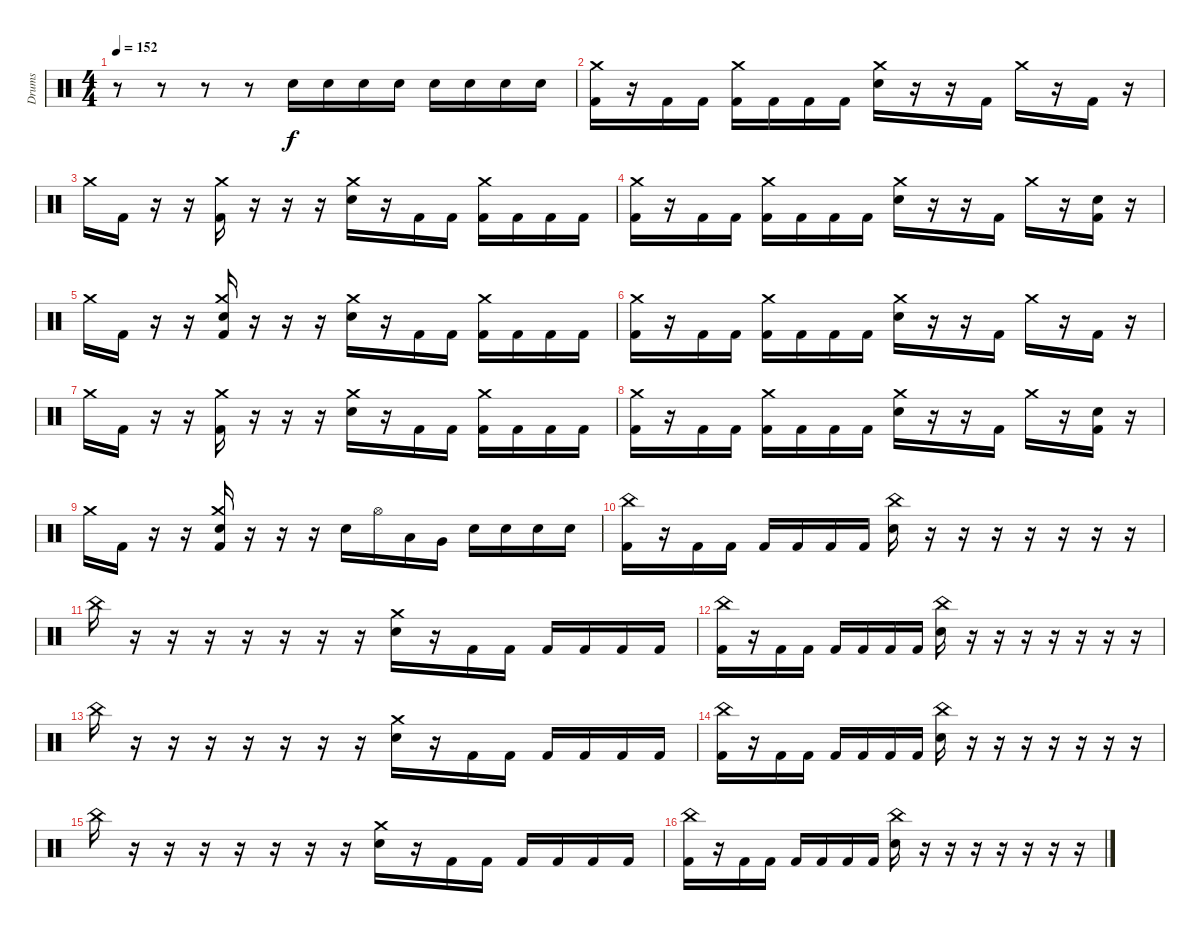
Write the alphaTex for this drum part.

\track ("Drums" "Drums") {instrument percussion}
\staff {score}
\articulation defaults
\ts (4 4)
\tempo 152
\clef neutral
\ks c
r.8{dy f} r.8 r.8 r.8 "Electric Snare (hit)".16 "Electric Snare (hit)".16 "Electric Snare (hit)".16 "Electric Snare (hit)".16 "Electric Snare (hit)".16 "Electric Snare (hit)".16 "Electric Snare (hit)".16 "Electric Snare (hit)".16 |
("Crash medium (hit)" "Kick (hit) 2").16 r.16 "Kick (hit) 2".16 "Kick (hit) 2".16 ("Crash medium (hit)" "Kick (hit) 2").16 "Kick (hit) 2".16 "Kick (hit) 2".16 "Kick (hit) 2".16 ("Crash medium (hit)" "Electric Snare (hit)").16 r.16 r.16 "Kick (hit) 2".16 "Crash medium (hit)".16 r.16 "Kick (hit) 2".16 r.16 |
"Crash medium (hit)".16 "Kick (hit) 2".16 r.16 r.16 ("Crash medium (hit)" "Kick (hit) 2").16 r.16 r.16 r.16 ("Crash medium (hit)" "Electric Snare (hit)").16 r.16 "Kick (hit) 2".16 "Kick (hit) 2".16 ("Crash medium (hit)" "Kick (hit) 2").16 "Kick (hit) 2".16 "Kick (hit) 2".16 "Kick (hit) 2".16 |
("Crash medium (hit)" "Kick (hit) 2").16 r.16 "Kick (hit) 2".16 "Kick (hit) 2".16 ("Crash medium (hit)" "Kick (hit) 2").16 "Kick (hit) 2".16 "Kick (hit) 2".16 "Kick (hit) 2".16 ("Crash medium (hit)" "Electric Snare (hit)").16 r.16 r.16 "Kick (hit) 2".16 "Crash medium (hit)".16 r.16 ("Electric Snare (hit)" "Kick (hit) 2").16 r.16 |
"Crash medium (hit)".16 "Kick (hit) 2".16 r.16 r.16 ("Crash medium (hit)" "Electric Snare (hit)" "Kick (hit) 2").16 r.16 r.16 r.16 ("Crash medium (hit)" "Electric Snare (hit)").16 r.16 "Kick (hit) 2".16 "Kick (hit) 2".16 ("Crash medium (hit)" "Kick (hit) 2").16 "Kick (hit) 2".16 "Kick (hit) 2".16 "Kick (hit) 2".16 |
("Crash medium (hit)" "Kick (hit) 2").16 r.16 "Kick (hit) 2".16 "Kick (hit) 2".16 ("Crash medium (hit)" "Kick (hit) 2").16 "Kick (hit) 2".16 "Kick (hit) 2".16 "Kick (hit) 2".16 ("Crash medium (hit)" "Electric Snare (hit)").16 r.16 r.16 "Kick (hit) 2".16 "Crash medium (hit)".16 r.16 "Kick (hit) 2".16 r.16 |
"Crash medium (hit)".16 "Kick (hit) 2".16 r.16 r.16 ("Crash medium (hit)" "Kick (hit) 2").16 r.16 r.16 r.16 ("Crash medium (hit)" "Electric Snare (hit)").16 r.16 "Kick (hit) 2".16 "Kick (hit) 2".16 ("Crash medium (hit)" "Kick (hit) 2").16 "Kick (hit) 2".16 "Kick (hit) 2".16 "Kick (hit) 2".16 |
("Crash medium (hit)" "Kick (hit) 2").16 r.16 "Kick (hit) 2".16 "Kick (hit) 2".16 ("Crash medium (hit)" "Kick (hit) 2").16 "Kick (hit) 2".16 "Kick (hit) 2".16 "Kick (hit) 2".16 ("Crash medium (hit)" "Electric Snare (hit)").16 r.16 r.16 "Kick (hit) 2".16 "Crash medium (hit)".16 r.16 ("Electric Snare (hit)" "Kick (hit) 2").16 r.16 |
"Crash medium (hit)".16 "Kick (hit) 2".16 r.16 r.16 ("Crash medium (hit)" "Electric Snare (hit)" "Kick (hit) 2").16 r.16 r.16 r.16 "Electric Snare (hit)".16 "Hi-Hat (open)".16 "Low Tom (hit)".16 "Very Low Tom (hit)".16 "Electric Snare (hit)".16 "Electric Snare (hit)".16 "Electric Snare (hit)".16 "Electric Snare (hit)".16 |
("China (hit)" "Kick (hit) 2").16 r.16 "Kick (hit) 2".16 "Kick (hit) 2".16 "Kick (hit) 2".16 "Kick (hit) 2".16 "Kick (hit) 2".16 "Kick (hit) 2".16 ("China (hit)" "Electric Snare (hit)").16 r.16 r.16 r.16 r.16 r.16 r.16 r.16 |
"China (hit)".16 r.16 r.16 r.16 r.16 r.16 r.16 r.16 ("Crash medium (hit)" "Electric Snare (hit)").16 r.16 "Kick (hit) 2".16 "Kick (hit) 2".16 "Kick (hit) 2".16 "Kick (hit) 2".16 "Kick (hit) 2".16 "Kick (hit) 2".16 |
("China (hit)" "Kick (hit) 2").16 r.16 "Kick (hit) 2".16 "Kick (hit) 2".16 "Kick (hit) 2".16 "Kick (hit) 2".16 "Kick (hit) 2".16 "Kick (hit) 2".16 ("China (hit)" "Electric Snare (hit)").16 r.16 r.16 r.16 r.16 r.16 r.16 r.16 |
"China (hit)".16 r.16 r.16 r.16 r.16 r.16 r.16 r.16 ("Crash medium (hit)" "Electric Snare (hit)").16 r.16 "Kick (hit) 2".16 "Kick (hit) 2".16 "Kick (hit) 2".16 "Kick (hit) 2".16 "Kick (hit) 2".16 "Kick (hit) 2".16 |
("China (hit)" "Kick (hit) 2").16 r.16 "Kick (hit) 2".16 "Kick (hit) 2".16 "Kick (hit) 2".16 "Kick (hit) 2".16 "Kick (hit) 2".16 "Kick (hit) 2".16 ("China (hit)" "Electric Snare (hit)").16 r.16 r.16 r.16 r.16 r.16 r.16 r.16 |
"China (hit)".16 r.16 r.16 r.16 r.16 r.16 r.16 r.16 ("Crash medium (hit)" "Electric Snare (hit)").16 r.16 "Kick (hit) 2".16 "Kick (hit) 2".16 "Kick (hit) 2".16 "Kick (hit) 2".16 "Kick (hit) 2".16 "Kick (hit) 2".16 |
("China (hit)" "Kick (hit) 2").16 r.16 "Kick (hit) 2".16 "Kick (hit) 2".16 "Kick (hit) 2".16 "Kick (hit) 2".16 "Kick (hit) 2".16 "Kick (hit) 2".16 ("China (hit)" "Electric Snare (hit)").16 r.16 r.16 r.16 r.16 r.16 r.16 r.16
